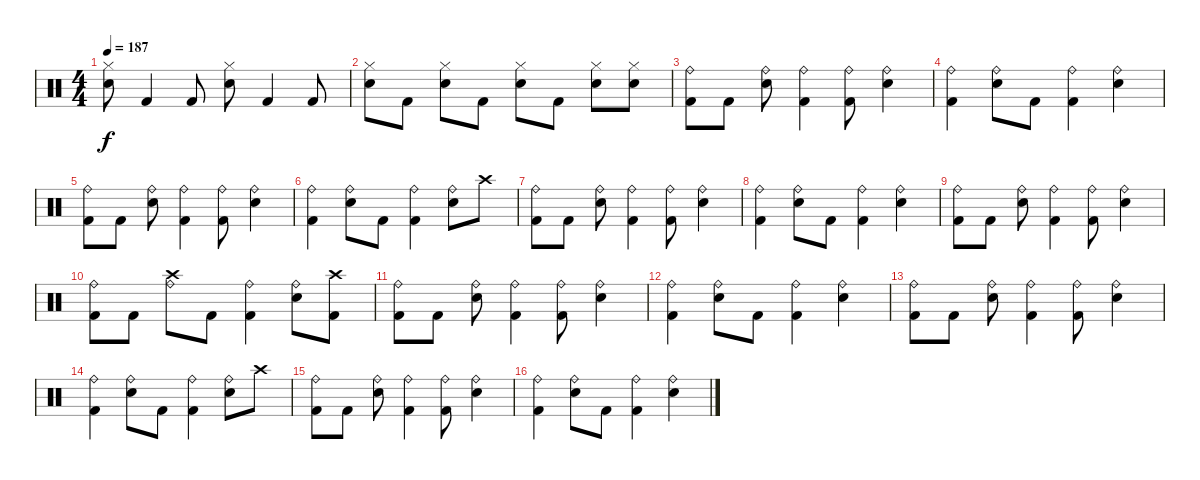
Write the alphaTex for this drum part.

\track "" {instrument percussion}
\staff {score}
\articulation defaults
\ts (4 4)
\tempo 187
\clef neutral
\ks c
("Hi-Hat (closed)" "Electric Snare (hit)").8{dy f} "Kick (hit) 2".4 "Kick (hit) 2".8 ("Hi-Hat (closed)" "Electric Snare (hit)").8 "Kick (hit) 2".4 "Kick (hit) 2".8 |
("Hi-Hat (closed)" "Electric Snare (hit)").8 "Kick (hit) 2".8 ("Hi-Hat (closed)" "Electric Snare (hit)").8 "Kick (hit) 2".8 ("Hi-Hat (closed)" "Electric Snare (hit)").8 "Kick (hit) 2".8 ("Hi-Hat (closed)" "Electric Snare (hit)").8 ("Hi-Hat (closed)" "Electric Snare (hit)").8 |
("Ride (bell)" "Kick (hit) 2").8 "Kick (hit) 2".8 ("Ride (bell)" "Electric Snare (hit)").8 ("Ride (bell)" "Kick (hit) 2").4 ("Ride (bell)" "Kick (hit) 2").8 ("Ride (bell)" "Electric Snare (hit)").4 |
("Ride (bell)" "Kick (hit) 2").4 ("Ride (bell)" "Electric Snare (hit)").8 "Kick (hit) 2".8 ("Ride (bell)" "Kick (hit) 2").4 ("Ride (bell)" "Electric Snare (hit)").4 |
("Ride (bell)" "Kick (hit) 2").8 "Kick (hit) 2".8 ("Ride (bell)" "Electric Snare (hit)").8 ("Ride (bell)" "Kick (hit) 2").4 ("Ride (bell)" "Kick (hit) 2").8 ("Ride (bell)" "Electric Snare (hit)").4 |
("Ride (bell)" "Kick (hit) 2").4 ("Ride (bell)" "Electric Snare (hit)").8 "Kick (hit) 2".8 ("Ride (bell)" "Kick (hit) 2").4 ("Ride (bell)" "Electric Snare (hit)").8 "Crash high (hit)".8 |
("Ride (bell)" "Kick (hit) 2").8 "Kick (hit) 2".8 ("Ride (bell)" "Electric Snare (hit)").8 ("Ride (bell)" "Kick (hit) 2").4 ("Ride (bell)" "Kick (hit) 2").8 ("Ride (bell)" "Electric Snare (hit)").4 |
("Ride (bell)" "Kick (hit) 2").4 ("Ride (bell)" "Electric Snare (hit)").8 "Kick (hit) 2".8 ("Ride (bell)" "Kick (hit) 2").4 ("Ride (bell)" "Electric Snare (hit)").4 |
("Ride (bell)" "Kick (hit) 2").8 "Kick (hit) 2".8 ("Ride (bell)" "Electric Snare (hit)").8 ("Ride (bell)" "Kick (hit) 2").4 ("Ride (bell)" "Kick (hit) 2").8 ("Ride (bell)" "Electric Snare (hit)").4 |
("Ride (bell)" "Kick (hit) 2").8 "Kick (hit) 2".8 ("Ride (bell)" "Crash high (hit)").8 "Kick (hit) 2".8 ("Ride (bell)" "Kick (hit) 2").4 ("Ride (bell)" "Electric Snare (hit)").8 ("Crash high (hit)" "Kick (hit) 2").8 |
("Ride (bell)" "Kick (hit) 2").8 "Kick (hit) 2".8 ("Ride (bell)" "Electric Snare (hit)").8 ("Ride (bell)" "Kick (hit) 2").4 ("Ride (bell)" "Kick (hit) 2").8 ("Ride (bell)" "Electric Snare (hit)").4 |
("Ride (bell)" "Kick (hit) 2").4 ("Ride (bell)" "Electric Snare (hit)").8 "Kick (hit) 2".8 ("Ride (bell)" "Kick (hit) 2").4 ("Ride (bell)" "Electric Snare (hit)").4 |
("Ride (bell)" "Kick (hit) 2").8 "Kick (hit) 2".8 ("Ride (bell)" "Electric Snare (hit)").8 ("Ride (bell)" "Kick (hit) 2").4 ("Ride (bell)" "Kick (hit) 2").8 ("Ride (bell)" "Electric Snare (hit)").4 |
("Ride (bell)" "Kick (hit) 2").4 ("Ride (bell)" "Electric Snare (hit)").8 "Kick (hit) 2".8 ("Ride (bell)" "Kick (hit) 2").4 ("Ride (bell)" "Electric Snare (hit)").8 "Crash high (hit)".8 |
("Ride (bell)" "Kick (hit) 2").8 "Kick (hit) 2".8 ("Ride (bell)" "Electric Snare (hit)").8 ("Ride (bell)" "Kick (hit) 2").4 ("Ride (bell)" "Kick (hit) 2").8 ("Ride (bell)" "Electric Snare (hit)").4 |
("Ride (bell)" "Kick (hit) 2").4 ("Ride (bell)" "Electric Snare (hit)").8 "Kick (hit) 2".8 ("Ride (bell)" "Kick (hit) 2").4 ("Ride (bell)" "Electric Snare (hit)").4
